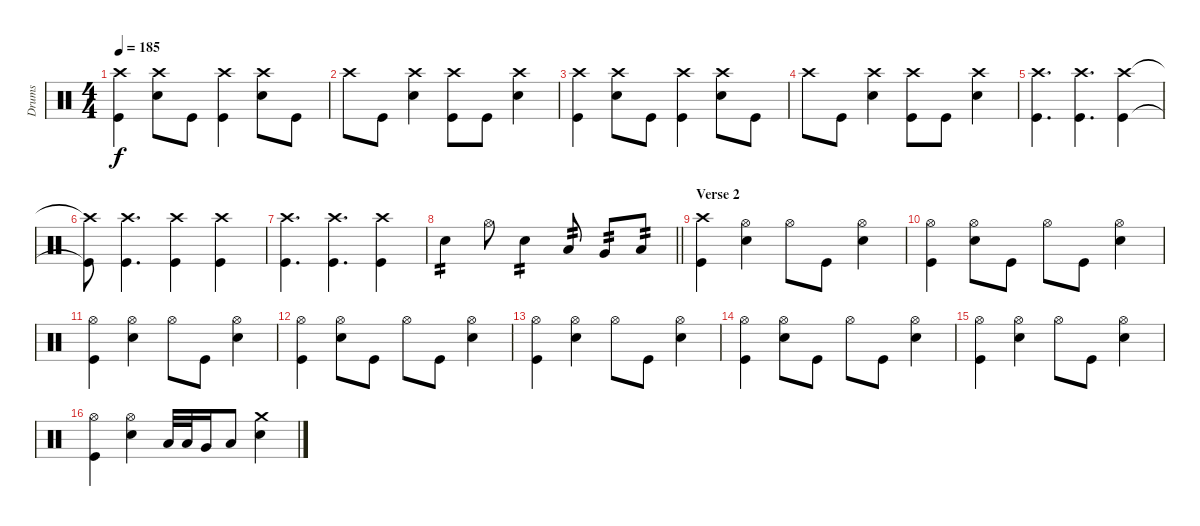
\track ("Drums" "Drums") {instrument percussion}
\staff {score}
\articulation defaults
\ts (4 4)
\tempo 185
\clef neutral
\ks c
("Crash high (hit)" "Kick (hit)").4{dy f} ("Crash high (hit)" "Snare (hit) 2").8 "Kick (hit)".8 ("Crash high (hit)" "Kick (hit)").4 ("Crash high (hit)" "Snare (hit) 2").8 "Kick (hit)".8 |
"Crash high (hit)".8 "Kick (hit)".8 ("Crash high (hit)" "Snare (hit) 2").4 ("Crash high (hit)" "Kick (hit)").8 "Kick (hit)".8 ("Crash high (hit)" "Snare (hit) 2").4 |
("Crash high (hit)" "Kick (hit)").4 ("Crash high (hit)" "Snare (hit) 2").8 "Kick (hit)".8 ("Crash high (hit)" "Kick (hit)").4 ("Crash high (hit)" "Snare (hit) 2").8 "Kick (hit)".8 |
"Crash high (hit)".8 "Kick (hit)".8 ("Crash high (hit)" "Snare (hit) 2").4 ("Crash high (hit)" "Kick (hit)").8 "Kick (hit)".8 ("Crash high (hit)" "Snare (hit) 2").4 |
("Crash high (hit)" "Kick (hit)").4{d} ("Crash high (hit)" "Kick (hit)").4{d} ("Crash high (hit)" "Kick (hit)").4 |
("Crash high (hit)"{t} "Kick (hit)"{t}).8 ("Crash high (hit)" "Kick (hit)").4{d} ("Crash high (hit)" "Kick (hit)").4 ("Crash high (hit)" "Kick (hit)").4 |
("Crash high (hit)" "Kick (hit)").4{d} ("Crash high (hit)" "Kick (hit)").4{d} ("Crash high (hit)" "Kick (hit)").4 |
\barLineRight lightlight "Snare (hit) 2".4{tp 2} "Hi-Hat (open)".8 "Snare (hit) 2".4{tp 2} "Low Tom (hit)".8{tp 2} "Very Low Tom (hit)".8{tp 2} "Low Floor Tom (hit)".8{tp 2}
|
\section ("" "Verse 2")
("Crash high (hit)" "Kick (hit)").4 ("Hi-Hat (open)" "Snare (hit) 2").4 "Hi-Hat (open)".8 "Kick (hit)".8 ("Hi-Hat (open)" "Snare (hit) 2").4 |
("Hi-Hat (open)" "Kick (hit)").4 ("Hi-Hat (open)" "Snare (hit) 2").8 "Kick (hit)".8 "Hi-Hat (open)".8 "Kick (hit)".8 ("Hi-Hat (open)" "Snare (hit) 2").4 |
("Hi-Hat (open)" "Kick (hit)").4 ("Hi-Hat (open)" "Snare (hit) 2").4 "Hi-Hat (open)".8 "Kick (hit)".8 ("Hi-Hat (open)" "Snare (hit) 2").4 |
("Hi-Hat (open)" "Kick (hit)").4 ("Hi-Hat (open)" "Snare (hit) 2").8 "Kick (hit)".8 "Hi-Hat (open)".8 "Kick (hit)".8 ("Hi-Hat (open)" "Snare (hit) 2").4 |
("Hi-Hat (open)" "Kick (hit)").4 ("Hi-Hat (open)" "Snare (hit) 2").4 "Hi-Hat (open)".8 "Kick (hit)".8 ("Hi-Hat (open)" "Snare (hit) 2").4 |
("Hi-Hat (open)" "Kick (hit)").4 ("Hi-Hat (open)" "Snare (hit) 2").8 "Kick (hit)".8 "Hi-Hat (open)".8 "Kick (hit)".8 ("Hi-Hat (open)" "Snare (hit) 2").4 |
("Hi-Hat (open)" "Kick (hit)").4 ("Hi-Hat (open)" "Snare (hit) 2").4 "Hi-Hat (open)".8 "Kick (hit)".8 ("Hi-Hat (open)" "Snare (hit) 2").4 |
("Hi-Hat (open)" "Kick (hit)").4 ("Hi-Hat (open)" "Snare (hit) 2").4 "Low Tom (hit)".32 "Low Tom (hit)".32 "Very Low Tom (hit)".16 "Low Floor Tom (hit)".8 ("Crash medium (hit)" "Snare (hit) 2").4
